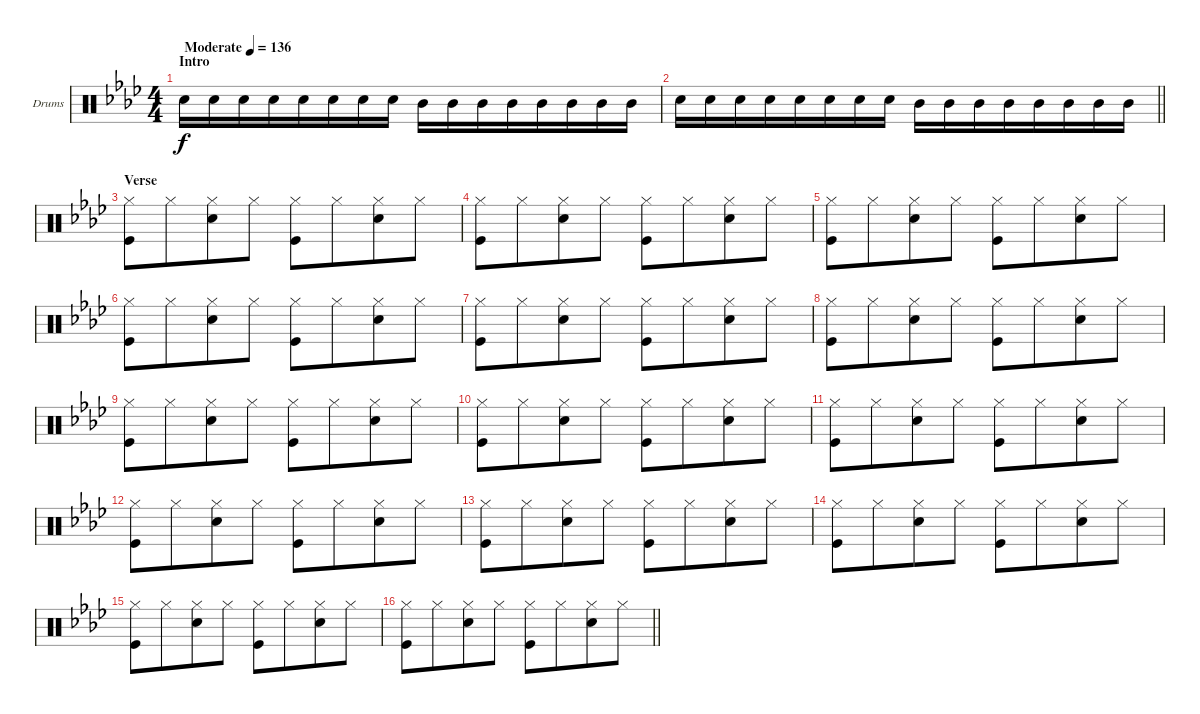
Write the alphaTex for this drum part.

\bracketExtendMode groupsimilarinstruments
\firstSystemTrackNameOrientation horizontal
\otherSystemsTrackNameOrientation horizontal
\track ("Fabrizio" "Drums") {instrument percussion}
\staff {score}
\articulation defaults
\ts (4 4)
\beaming (8 4 4)
\section ("" "Intro")
\tempo (136 "Moderate")
\clef neutral
\ks ab "Snare (hit) 2".16{dy f} "Snare (hit) 2".16 "Snare (hit) 2".16 "Snare (hit) 2".16 "Snare (hit) 2".16 "Snare (hit) 2".16 "Snare (hit) 2".16 "Snare (hit) 2".16 "Mid Tom (hit)".16 "Mid Tom (hit)".16 "Mid Tom (hit)".16 "Mid Tom (hit)".16 "Mid Tom (hit)".16 "Mid Tom (hit)".16 "Mid Tom (hit)".16 "Mid Tom (hit)".16
|
\barLineRight lightlight "Snare (hit) 2".16 "Snare (hit) 2".16 "Snare (hit) 2".16 "Snare (hit) 2".16 "Snare (hit) 2".16 "Snare (hit) 2".16 "Snare (hit) 2".16 "Snare (hit) 2".16 "Mid Tom (hit)".16 "Mid Tom (hit)".16 "Mid Tom (hit)".16 "Mid Tom (hit)".16 "Mid Tom (hit)".16 "Mid Tom (hit)".16 "Mid Tom (hit)".16 "Mid Tom (hit)".16
|
\section ("" "Verse")
("Hi-Hat (closed)" "Kick (hit)").8 "Hi-Hat (closed)".8 ("Hi-Hat (closed)" "Snare (hit) 2").8 "Hi-Hat (closed)".8 ("Hi-Hat (closed)" "Kick (hit)").8 "Hi-Hat (closed)".8 ("Hi-Hat (closed)" "Snare (hit) 2").8 "Hi-Hat (closed)".8 |
("Hi-Hat (closed)" "Kick (hit)").8 "Hi-Hat (closed)".8 ("Hi-Hat (closed)" "Snare (hit) 2").8 "Hi-Hat (closed)".8 ("Hi-Hat (closed)" "Kick (hit)").8 "Hi-Hat (closed)".8 ("Hi-Hat (closed)" "Snare (hit) 2").8 "Hi-Hat (closed)".8 |
("Hi-Hat (closed)" "Kick (hit)").8 "Hi-Hat (closed)".8 ("Hi-Hat (closed)" "Snare (hit) 2").8 "Hi-Hat (closed)".8 ("Hi-Hat (closed)" "Kick (hit)").8 "Hi-Hat (closed)".8 ("Hi-Hat (closed)" "Snare (hit) 2").8 "Hi-Hat (closed)".8 |
("Hi-Hat (closed)" "Kick (hit)").8 "Hi-Hat (closed)".8 ("Hi-Hat (closed)" "Snare (hit) 2").8 "Hi-Hat (closed)".8 ("Hi-Hat (closed)" "Kick (hit)").8 "Hi-Hat (closed)".8 ("Hi-Hat (closed)" "Snare (hit) 2").8 "Hi-Hat (closed)".8 |
("Hi-Hat (closed)" "Kick (hit)").8 "Hi-Hat (closed)".8 ("Hi-Hat (closed)" "Snare (hit) 2").8 "Hi-Hat (closed)".8 ("Hi-Hat (closed)" "Kick (hit)").8 "Hi-Hat (closed)".8 ("Hi-Hat (closed)" "Snare (hit) 2").8 "Hi-Hat (closed)".8 |
("Hi-Hat (closed)" "Kick (hit)").8 "Hi-Hat (closed)".8 ("Hi-Hat (closed)" "Snare (hit) 2").8 "Hi-Hat (closed)".8 ("Hi-Hat (closed)" "Kick (hit)").8 "Hi-Hat (closed)".8 ("Hi-Hat (closed)" "Snare (hit) 2").8 "Hi-Hat (closed)".8 |
("Hi-Hat (closed)" "Kick (hit)").8 "Hi-Hat (closed)".8 ("Hi-Hat (closed)" "Snare (hit) 2").8 "Hi-Hat (closed)".8 ("Hi-Hat (closed)" "Kick (hit)").8 "Hi-Hat (closed)".8 ("Hi-Hat (closed)" "Snare (hit) 2").8 "Hi-Hat (closed)".8 |
("Hi-Hat (closed)" "Kick (hit)").8 "Hi-Hat (closed)".8 ("Hi-Hat (closed)" "Snare (hit) 2").8 "Hi-Hat (closed)".8 ("Hi-Hat (closed)" "Kick (hit)").8 "Hi-Hat (closed)".8 ("Hi-Hat (closed)" "Snare (hit) 2").8 "Hi-Hat (closed)".8 |
("Hi-Hat (closed)" "Kick (hit)").8 "Hi-Hat (closed)".8 ("Hi-Hat (closed)" "Snare (hit) 2").8 "Hi-Hat (closed)".8 ("Hi-Hat (closed)" "Kick (hit)").8 "Hi-Hat (closed)".8 ("Hi-Hat (closed)" "Snare (hit) 2").8 "Hi-Hat (closed)".8 |
("Hi-Hat (closed)" "Kick (hit)").8 "Hi-Hat (closed)".8 ("Hi-Hat (closed)" "Snare (hit) 2").8 "Hi-Hat (closed)".8 ("Hi-Hat (closed)" "Kick (hit)").8 "Hi-Hat (closed)".8 ("Hi-Hat (closed)" "Snare (hit) 2").8 "Hi-Hat (closed)".8 |
("Hi-Hat (closed)" "Kick (hit)").8 "Hi-Hat (closed)".8 ("Hi-Hat (closed)" "Snare (hit) 2").8 "Hi-Hat (closed)".8 ("Hi-Hat (closed)" "Kick (hit)").8 "Hi-Hat (closed)".8 ("Hi-Hat (closed)" "Snare (hit) 2").8 "Hi-Hat (closed)".8 |
("Hi-Hat (closed)" "Kick (hit)").8 "Hi-Hat (closed)".8 ("Hi-Hat (closed)" "Snare (hit) 2").8 "Hi-Hat (closed)".8 ("Hi-Hat (closed)" "Kick (hit)").8 "Hi-Hat (closed)".8 ("Hi-Hat (closed)" "Snare (hit) 2").8 "Hi-Hat (closed)".8 |
("Hi-Hat (closed)" "Kick (hit)").8 "Hi-Hat (closed)".8 ("Hi-Hat (closed)" "Snare (hit) 2").8 "Hi-Hat (closed)".8 ("Hi-Hat (closed)" "Kick (hit)").8 "Hi-Hat (closed)".8 ("Hi-Hat (closed)" "Snare (hit) 2").8 "Hi-Hat (closed)".8 |
\barLineRight lightlight
("Hi-Hat (closed)" "Kick (hit)").8 "Hi-Hat (closed)".8 ("Hi-Hat (closed)" "Snare (hit) 2").8 "Hi-Hat (closed)".8 ("Hi-Hat (closed)" "Kick (hit)").8 "Hi-Hat (closed)".8 ("Hi-Hat (closed)" "Snare (hit) 2").8 "Hi-Hat (closed)".8
